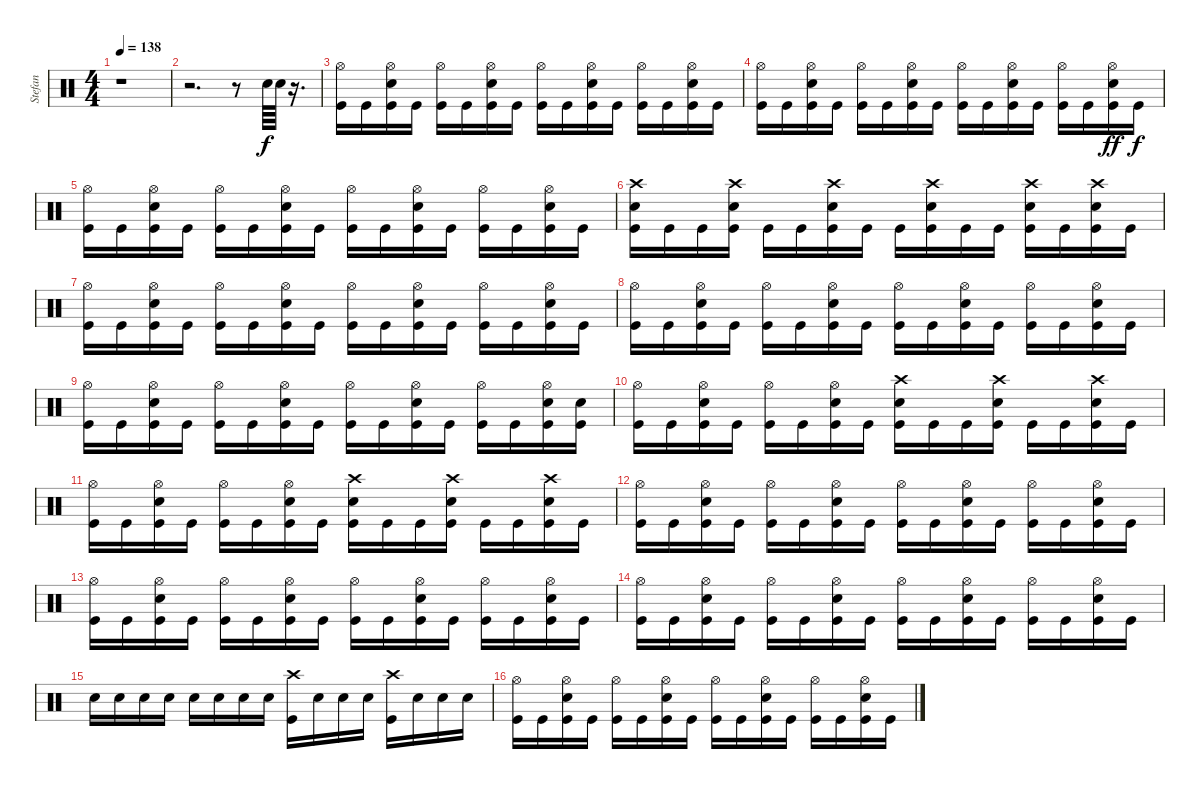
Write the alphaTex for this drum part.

\track ("Stefan" "Stefan") {instrument percussion}
\staff {score}
\articulation defaults
\ts (4 4)
\tempo 138
\clef neutral
\ks c
r.1{dy f} |
r.2{d} r.8 "Snare (hit) 2".64 "Snare (hit) 2".64 r.16{d} |
("Hi-Hat (open)" "Kick (hit)").16 "Kick (hit)".16 ("Hi-Hat (open)" "Snare (hit) 2" "Kick (hit)").16 "Kick (hit)".16 ("Hi-Hat (open)" "Kick (hit)").16 "Kick (hit)".16 ("Hi-Hat (open)" "Snare (hit) 2" "Kick (hit)").16 "Kick (hit)".16 ("Hi-Hat (open)" "Kick (hit)").16 "Kick (hit)".16 ("Hi-Hat (open)" "Snare (hit) 2" "Kick (hit)").16 "Kick (hit)".16 ("Hi-Hat (open)" "Kick (hit)").16 "Kick (hit)".16 ("Hi-Hat (open)" "Snare (hit) 2" "Kick (hit)").16 "Kick (hit)".16 |
("Hi-Hat (open)" "Kick (hit)").16 "Kick (hit)".16 ("Hi-Hat (open)" "Snare (hit) 2" "Kick (hit)").16 "Kick (hit)".16 ("Hi-Hat (open)" "Kick (hit)").16 "Kick (hit)".16 ("Hi-Hat (open)" "Snare (hit) 2" "Kick (hit)").16 "Kick (hit)".16 ("Hi-Hat (open)" "Kick (hit)").16 "Kick (hit)".16 ("Hi-Hat (open)" "Snare (hit) 2" "Kick (hit)").16 "Kick (hit)".16 ("Hi-Hat (open)" "Kick (hit)").16 "Kick (hit)".16 ("Hi-Hat (open)" "Snare (hit) 2" "Kick (hit)").16{dy ff} "Kick (hit)".16{dy f} |
("Hi-Hat (open)" "Kick (hit)").16 "Kick (hit)".16 ("Hi-Hat (open)" "Snare (hit) 2" "Kick (hit)").16 "Kick (hit)".16 ("Hi-Hat (open)" "Kick (hit)").16 "Kick (hit)".16 ("Hi-Hat (open)" "Snare (hit) 2" "Kick (hit)").16 "Kick (hit)".16 ("Hi-Hat (open)" "Kick (hit)").16 "Kick (hit)".16 ("Hi-Hat (open)" "Snare (hit) 2" "Kick (hit)").16 "Kick (hit)".16 ("Hi-Hat (open)" "Kick (hit)").16 "Kick (hit)".16 ("Hi-Hat (open)" "Snare (hit) 2" "Kick (hit)").16 "Kick (hit)".16 |
("Crash high (hit)" "Snare (hit) 2" "Kick (hit)").16 "Kick (hit)".16 "Kick (hit)".16 ("Crash high (hit)" "Snare (hit) 2" "Kick (hit)").16 "Kick (hit)".16 "Kick (hit)".16 ("Crash high (hit)" "Snare (hit) 2" "Kick (hit)").16 "Kick (hit)".16 "Kick (hit)".16 ("Crash high (hit)" "Snare (hit) 2" "Kick (hit)").16 "Kick (hit)".16 "Kick (hit)".16 ("Crash high (hit)" "Snare (hit) 2" "Kick (hit)").16 "Kick (hit)".16 ("Crash high (hit)" "Snare (hit) 2" "Kick (hit)").16 "Kick (hit)".16 |
("Hi-Hat (open)" "Kick (hit)").16 "Kick (hit)".16 ("Hi-Hat (open)" "Snare (hit) 2" "Kick (hit)").16 "Kick (hit)".16 ("Hi-Hat (open)" "Kick (hit)").16 "Kick (hit)".16 ("Hi-Hat (open)" "Snare (hit) 2" "Kick (hit)").16 "Kick (hit)".16 ("Hi-Hat (open)" "Kick (hit)").16 "Kick (hit)".16 ("Hi-Hat (open)" "Snare (hit) 2" "Kick (hit)").16 "Kick (hit)".16 ("Hi-Hat (open)" "Kick (hit)").16 "Kick (hit)".16 ("Hi-Hat (open)" "Snare (hit) 2" "Kick (hit)").16 "Kick (hit)".16 |
("Hi-Hat (open)" "Kick (hit)").16 "Kick (hit)".16 ("Hi-Hat (open)" "Snare (hit) 2" "Kick (hit)").16 "Kick (hit)".16 ("Hi-Hat (open)" "Kick (hit)").16 "Kick (hit)".16 ("Hi-Hat (open)" "Snare (hit) 2" "Kick (hit)").16 "Kick (hit)".16 ("Hi-Hat (open)" "Kick (hit)").16 "Kick (hit)".16 ("Hi-Hat (open)" "Snare (hit) 2" "Kick (hit)").16 "Kick (hit)".16 ("Hi-Hat (open)" "Kick (hit)").16 "Kick (hit)".16 ("Hi-Hat (open)" "Snare (hit) 2" "Kick (hit)").16 "Kick (hit)".16 |
("Hi-Hat (open)" "Kick (hit)").16 "Kick (hit)".16 ("Hi-Hat (open)" "Snare (hit) 2" "Kick (hit)").16 "Kick (hit)".16 ("Hi-Hat (open)" "Kick (hit)").16 "Kick (hit)".16 ("Hi-Hat (open)" "Snare (hit) 2" "Kick (hit)").16 "Kick (hit)".16 ("Hi-Hat (open)" "Kick (hit)").16 "Kick (hit)".16 ("Hi-Hat (open)" "Snare (hit) 2" "Kick (hit)").16 "Kick (hit)".16 ("Hi-Hat (open)" "Kick (hit)").16 "Kick (hit)".16 ("Hi-Hat (open)" "Snare (hit) 2" "Kick (hit)").16 ("Snare (hit) 2" "Kick (hit)").16 |
("Hi-Hat (open)" "Kick (hit)").16 "Kick (hit)".16 ("Hi-Hat (open)" "Snare (hit) 2" "Kick (hit)").16 "Kick (hit)".16 ("Hi-Hat (open)" "Kick (hit)").16 "Kick (hit)".16 ("Hi-Hat (open)" "Snare (hit) 2" "Kick (hit)").16 "Kick (hit)".16 ("Crash high (hit)" "Snare (hit) 2" "Kick (hit)").16 "Kick (hit)".16 "Kick (hit)".16 ("Crash high (hit)" "Snare (hit) 2" "Kick (hit)").16 "Kick (hit)".16 "Kick (hit)".16 ("Crash high (hit)" "Snare (hit) 2" "Kick (hit)").16 "Kick (hit)".16 |
("Hi-Hat (open)" "Kick (hit)").16 "Kick (hit)".16 ("Hi-Hat (open)" "Snare (hit) 2" "Kick (hit)").16 "Kick (hit)".16 ("Hi-Hat (open)" "Kick (hit)").16 "Kick (hit)".16 ("Hi-Hat (open)" "Snare (hit) 2" "Kick (hit)").16 "Kick (hit)".16 ("Crash high (hit)" "Snare (hit) 2" "Kick (hit)").16 "Kick (hit)".16 "Kick (hit)".16 ("Crash high (hit)" "Snare (hit) 2" "Kick (hit)").16 "Kick (hit)".16 "Kick (hit)".16 ("Crash high (hit)" "Snare (hit) 2" "Kick (hit)").16 "Kick (hit)".16 |
("Hi-Hat (open)" "Kick (hit)").16 "Kick (hit)".16 ("Hi-Hat (open)" "Snare (hit) 2" "Kick (hit)").16 "Kick (hit)".16 ("Hi-Hat (open)" "Kick (hit)").16 "Kick (hit)".16 ("Hi-Hat (open)" "Snare (hit) 2" "Kick (hit)").16 "Kick (hit)".16 ("Hi-Hat (open)" "Kick (hit)").16 "Kick (hit)".16 ("Hi-Hat (open)" "Snare (hit) 2" "Kick (hit)").16 "Kick (hit)".16 ("Hi-Hat (open)" "Kick (hit)").16 "Kick (hit)".16 ("Hi-Hat (open)" "Snare (hit) 2" "Kick (hit)").16 "Kick (hit)".16 |
("Hi-Hat (open)" "Kick (hit)").16 "Kick (hit)".16 ("Hi-Hat (open)" "Snare (hit) 2" "Kick (hit)").16 "Kick (hit)".16 ("Hi-Hat (open)" "Kick (hit)").16 "Kick (hit)".16 ("Hi-Hat (open)" "Snare (hit) 2" "Kick (hit)").16 "Kick (hit)".16 ("Hi-Hat (open)" "Kick (hit)").16 "Kick (hit)".16 ("Hi-Hat (open)" "Snare (hit) 2" "Kick (hit)").16 "Kick (hit)".16 ("Hi-Hat (open)" "Kick (hit)").16 "Kick (hit)".16 ("Hi-Hat (open)" "Snare (hit) 2" "Kick (hit)").16 "Kick (hit)".16 |
("Hi-Hat (open)" "Kick (hit)").16 "Kick (hit)".16 ("Hi-Hat (open)" "Snare (hit) 2" "Kick (hit)").16 "Kick (hit)".16 ("Hi-Hat (open)" "Kick (hit)").16 "Kick (hit)".16 ("Hi-Hat (open)" "Snare (hit) 2" "Kick (hit)").16 "Kick (hit)".16 ("Hi-Hat (open)" "Kick (hit)").16 "Kick (hit)".16 ("Hi-Hat (open)" "Snare (hit) 2" "Kick (hit)").16 "Kick (hit)".16 ("Hi-Hat (open)" "Kick (hit)").16 "Kick (hit)".16 ("Hi-Hat (open)" "Snare (hit) 2" "Kick (hit)").16 "Kick (hit)".16 |
"Snare (hit) 2".16 "Snare (hit) 2".16 "Snare (hit) 2".16 "Snare (hit) 2".16 "Snare (hit) 2".16 "Snare (hit) 2".16 "Snare (hit) 2".16 "Snare (hit) 2".16 ("Crash high (hit)" "Kick (hit)").16 "Snare (hit) 2".16 "Snare (hit) 2".16 "Snare (hit) 2".16 ("Crash high (hit)" "Kick (hit)").16 "Snare (hit) 2".16 "Snare (hit) 2".16 "Snare (hit) 2".16 |
("Hi-Hat (open)" "Kick (hit)").16 "Kick (hit)".16 ("Hi-Hat (open)" "Snare (hit) 2" "Kick (hit)").16 "Kick (hit)".16 ("Hi-Hat (open)" "Kick (hit)").16 "Kick (hit)".16 ("Hi-Hat (open)" "Snare (hit) 2" "Kick (hit)").16 "Kick (hit)".16 ("Hi-Hat (open)" "Kick (hit)").16 "Kick (hit)".16 ("Hi-Hat (open)" "Snare (hit) 2" "Kick (hit)").16 "Kick (hit)".16 ("Hi-Hat (open)" "Kick (hit)").16 "Kick (hit)".16 ("Hi-Hat (open)" "Snare (hit) 2" "Kick (hit)").16 "Kick (hit)".16
